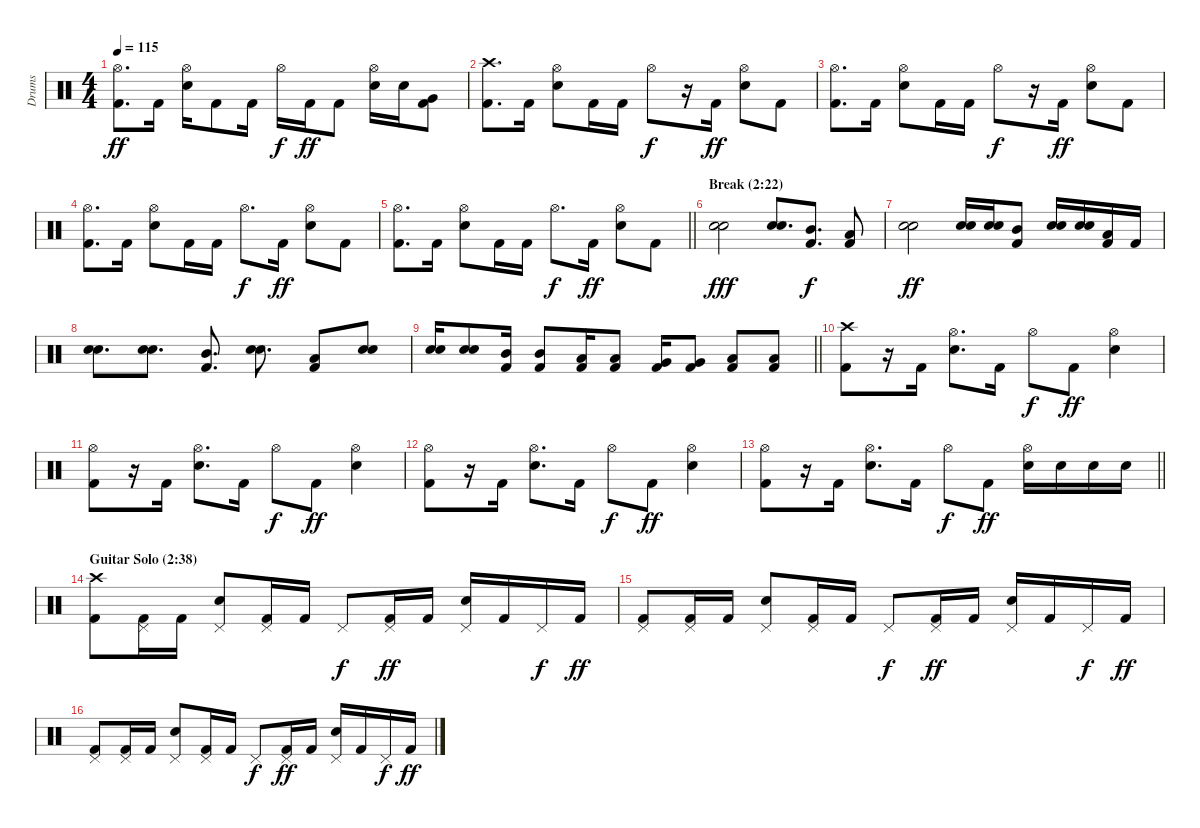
\track ("Drums" "Drums") {instrument percussion}
\staff {score}
\articulation defaults
\ts (4 4)
\tempo 115
\clef neutral
\ks c
("Hi-Hat (open)" "Kick (hit) 2").8{d dy ff} "Kick (hit) 2".16 ("Hi-Hat (open)" "Snare (hit) 2").16 "Kick (hit) 2".8 "Kick (hit) 2".16 "Hi-Hat (open)".16{dy f} "Kick (hit) 2".16{dy ff} "Kick (hit) 2".8 ("Hi-Hat (open)" "Snare (hit) 2").16 "Snare (hit) 2".16 ("Very Low Tom (hit)" "Kick (hit) 2").8 |
("Crash high (hit)" "Kick (hit) 2").8{d} "Kick (hit) 2".16 ("Hi-Hat (open)" "Snare (hit) 2").8 "Kick (hit) 2".16 "Kick (hit) 2".16 "Hi-Hat (open)".8{dy f} r.16 "Kick (hit) 2".16{dy ff} ("Hi-Hat (open)" "Snare (hit) 2").8 "Kick (hit) 2".8 |
("Hi-Hat (open)" "Kick (hit) 2").8{d} "Kick (hit) 2".16 ("Hi-Hat (open)" "Snare (hit) 2").8 "Kick (hit) 2".16 "Kick (hit) 2".16 "Hi-Hat (open)".8{dy f} r.16 "Kick (hit) 2".16{dy ff} ("Hi-Hat (open)" "Snare (hit) 2").8 "Kick (hit) 2".8 |
("Hi-Hat (open)" "Kick (hit) 2").8{d} "Kick (hit) 2".16 ("Hi-Hat (open)" "Snare (hit) 2").8 "Kick (hit) 2".16 "Kick (hit) 2".16 "Hi-Hat (open)".8{d dy f} "Kick (hit) 2".16{dy ff} ("Hi-Hat (open)" "Snare (hit) 2").8 "Kick (hit) 2".8 |
\barLineRight lightlight
("Hi-Hat (open)" "Kick (hit) 2").8{d} "Kick (hit) 2".16 ("Hi-Hat (open)" "Snare (hit) 2").8 "Kick (hit) 2".16 "Kick (hit) 2".16 "Hi-Hat (open)".8{d dy f} "Kick (hit) 2".16{dy ff} ("Hi-Hat (open)" "Snare (hit) 2").8 "Kick (hit) 2".8 |
\section ("" "Break (2:22)")
("Electric Snare (hit)" "Snare (hit) 2").2{dy fff} ("Electric Snare (hit)" "Snare (hit) 2").8{d} ("Mid Tom (hit)" "Kick (hit) 2").8{d dy f} ("Low Tom (hit)" "Kick (hit) 2").8 |
("Electric Snare (hit)" "Snare (hit) 2").2{dy ff} ("Electric Snare (hit)" "Snare (hit) 2").16 ("Electric Snare (hit)" "Snare (hit) 2").16 ("Mid Tom (hit)" "Kick (hit) 2").8 ("Electric Snare (hit)" "Snare (hit) 2").16 ("Electric Snare (hit)" "Snare (hit) 2").16 ("Low Tom (hit)" "Kick (hit) 2").16 "Kick (hit) 2".16 |
("Electric Snare (hit)" "Snare (hit) 2").8{d} ("Electric Snare (hit)" "Snare (hit) 2").8{d} ("Mid Tom (hit)" "Kick (hit) 2").8{d} ("Electric Snare (hit)" "Snare (hit) 2").8{d} ("Low Tom (hit)" "Kick (hit) 2").8 ("Electric Snare (hit)" "Snare (hit) 2").8 |
\barLineRight lightlight
("Electric Snare (hit)" "Snare (hit) 2").16 ("Electric Snare (hit)" "Snare (hit) 2").8 ("Mid Tom (hit)" "Kick (hit) 2").16 ("Mid Tom (hit)" "Kick (hit) 2").8 ("Low Tom (hit)" "Kick (hit) 2").16 ("Low Tom (hit)" "Kick (hit) 2").8 ("Very Low Tom (hit)" "Kick (hit) 2").16 ("Very Low Tom (hit)" "Kick (hit) 2").8 ("Low Floor Tom (hit)" "Kick (hit) 2").8 ("Low Floor Tom (hit)" "Kick (hit) 2").8 |
("Crash high (hit)" "Kick (hit) 2").8 r.16 "Kick (hit) 2".16 ("Hi-Hat (open)" "Snare (hit) 2").8{d} "Kick (hit) 2".16 "Hi-Hat (open)".8{dy f} "Kick (hit) 2".8{dy ff} ("Hi-Hat (open)" "Snare (hit) 2").4 |
("Hi-Hat (open)" "Kick (hit) 2").8 r.16 "Kick (hit) 2".16 ("Hi-Hat (open)" "Snare (hit) 2").8{d} "Kick (hit) 2".16 "Hi-Hat (open)".8{dy f} "Kick (hit) 2".8{dy ff} ("Hi-Hat (open)" "Snare (hit) 2").4 |
("Hi-Hat (open)" "Kick (hit) 2").8 r.16 "Kick (hit) 2".16 ("Hi-Hat (open)" "Snare (hit) 2").8{d} "Kick (hit) 2".16 "Hi-Hat (open)".8{dy f} "Kick (hit) 2".8{dy ff} ("Hi-Hat (open)" "Snare (hit) 2").4 |
\barLineRight lightlight
("Hi-Hat (open)" "Kick (hit) 2").8 r.16 "Kick (hit) 2".16 ("Hi-Hat (open)" "Snare (hit) 2").8{d} "Kick (hit) 2".16 "Hi-Hat (open)".8{dy f} "Kick (hit) 2".8{dy ff} ("Hi-Hat (open)" "Snare (hit) 2").16 "Snare (hit) 2".16 "Snare (hit) 2".16 "Snare (hit) 2".16 |
\section ("" "Guitar Solo (2:38)")
("Crash high (hit)" "Kick (hit) 2").8 ("Pedal Hi-Hat (hit)" "Kick (hit) 2").16 "Kick (hit) 2".16 ("Pedal Hi-Hat (hit)" "Snare (hit) 2").8 ("Pedal Hi-Hat (hit)" "Kick (hit) 2").16 "Kick (hit) 2".16 "Pedal Hi-Hat (hit)".8{dy f} ("Pedal Hi-Hat (hit)" "Kick (hit) 2").16{dy ff} "Kick (hit) 2".16 ("Pedal Hi-Hat (hit)" "Snare (hit) 2").16 "Kick (hit) 2".16 "Pedal Hi-Hat (hit)".16{dy f} "Kick (hit) 2".16{dy ff} |
("Pedal Hi-Hat (hit)" "Kick (hit) 2").8 ("Pedal Hi-Hat (hit)" "Kick (hit) 2").16 "Kick (hit) 2".16 ("Pedal Hi-Hat (hit)" "Snare (hit) 2").8 ("Pedal Hi-Hat (hit)" "Kick (hit) 2").16 "Kick (hit) 2".16 "Pedal Hi-Hat (hit)".8{dy f} ("Pedal Hi-Hat (hit)" "Kick (hit) 2").16{dy ff} "Kick (hit) 2".16 ("Pedal Hi-Hat (hit)" "Snare (hit) 2").16 "Kick (hit) 2".16 "Pedal Hi-Hat (hit)".16{dy f} "Kick (hit) 2".16{dy ff} |
("Pedal Hi-Hat (hit)" "Kick (hit) 2").8 ("Pedal Hi-Hat (hit)" "Kick (hit) 2").16 "Kick (hit) 2".16 ("Pedal Hi-Hat (hit)" "Snare (hit) 2").8 ("Pedal Hi-Hat (hit)" "Kick (hit) 2").16 "Kick (hit) 2".16 "Pedal Hi-Hat (hit)".8{dy f} ("Pedal Hi-Hat (hit)" "Kick (hit) 2").16{dy ff} "Kick (hit) 2".16 ("Pedal Hi-Hat (hit)" "Snare (hit) 2").16 "Kick (hit) 2".16 "Pedal Hi-Hat (hit)".16{dy f} "Kick (hit) 2".16{dy ff}
